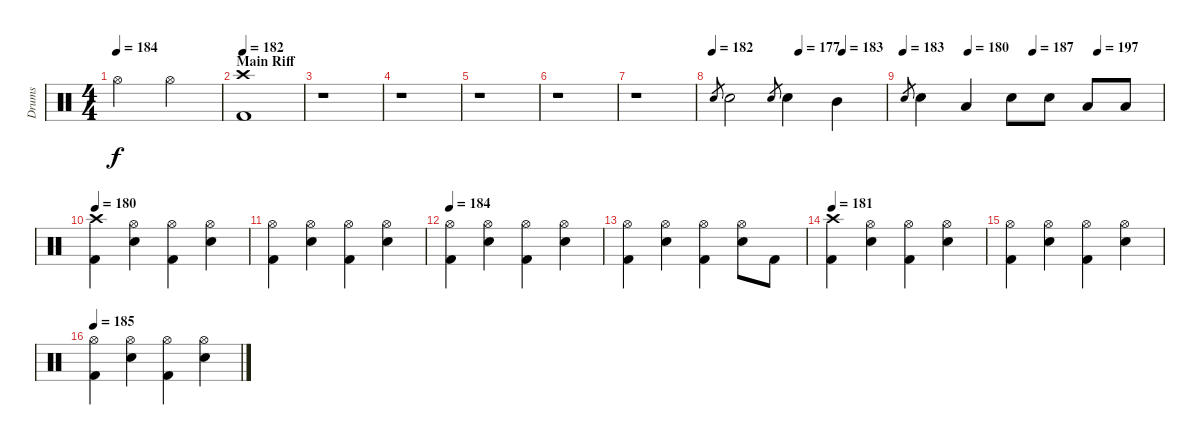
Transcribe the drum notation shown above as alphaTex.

\track ("Drums" "Drums") {instrument percussion}
\staff {score}
\articulation defaults
\ts (4 4)
\tempo 184
\clef neutral
\ks c "Hi-Hat (open)".2{dy f} "Hi-Hat (open)".2
|
\section ("" "Main Riff")
\tempo 182
("Crash high (hit)" "Kick (hit) 2").1 |
r.1 |
r.1 |
r.1 |
r.1 |
r.1 |
\tempo 182
\tempo (177 0.5)
\tempo (183 0.75)
"Snare (hit)".8{gr} "Snare (hit) 2".2 "Snare (hit)".8{gr} "Snare (hit) 2".4 "Mid Tom (hit)".4 |
\tempo 183
\tempo (180 0.25)
\tempo (187 0.5)
\tempo (197 0.75)
"Snare (hit)".8{gr} "Snare (hit) 2".4 "Low Tom (hit)".4 "Snare (hit) 2".8 "Snare (hit) 2".8 "Low Tom (hit)".8 "Low Tom (hit)".8 |
\tempo 180
("Crash high (hit)" "Kick (hit) 2").4 ("Hi-Hat (open)" "Snare (hit) 2").4 ("Hi-Hat (open)" "Kick (hit) 2").4 ("Hi-Hat (open)" "Snare (hit) 2").4 |
("Hi-Hat (open)" "Kick (hit) 2").4 ("Hi-Hat (open)" "Snare (hit) 2").4 ("Hi-Hat (open)" "Kick (hit) 2").4 ("Hi-Hat (open)" "Snare (hit) 2").4 |
\tempo 184
("Hi-Hat (open)" "Kick (hit) 2").4 ("Hi-Hat (open)" "Snare (hit) 2").4 ("Hi-Hat (open)" "Kick (hit) 2").4 ("Hi-Hat (open)" "Snare (hit) 2").4 |
("Hi-Hat (open)" "Kick (hit) 2").4 ("Hi-Hat (open)" "Snare (hit) 2").4 ("Hi-Hat (open)" "Kick (hit) 2").4 ("Hi-Hat (open)" "Snare (hit) 2").8 "Kick (hit) 2".8 |
\tempo 181
("Crash high (hit)" "Kick (hit) 2").4 ("Hi-Hat (open)" "Snare (hit) 2").4 ("Hi-Hat (open)" "Kick (hit) 2").4 ("Hi-Hat (open)" "Snare (hit) 2").4 |
("Hi-Hat (open)" "Kick (hit) 2").4 ("Hi-Hat (open)" "Snare (hit) 2").4 ("Hi-Hat (open)" "Kick (hit) 2").4 ("Hi-Hat (open)" "Snare (hit) 2").4 |
\tempo 185
("Hi-Hat (open)" "Kick (hit) 2").4 ("Hi-Hat (open)" "Snare (hit) 2").4 ("Hi-Hat (open)" "Kick (hit) 2").4 ("Hi-Hat (open)" "Snare (hit) 2").4
